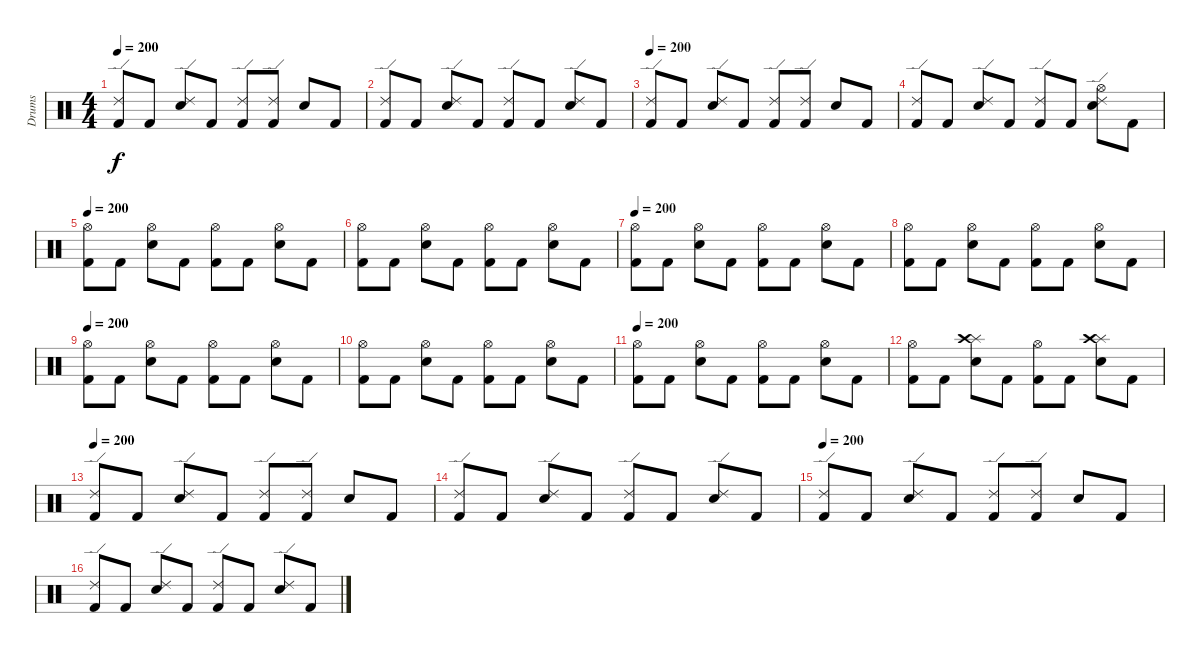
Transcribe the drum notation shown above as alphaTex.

\track ("Drums" "Drums") {instrument percussion}
\staff {score}
\articulation defaults
\ts (4 4)
\tempo 200
\clef neutral
\ks c
("Kick (hit) 2" "Ride (edge) 2").8{dy f} "Kick (hit) 2".8 ("Electric Snare (hit)" "Ride (edge) 2").8 "Kick (hit) 2".8 ("Kick (hit) 2" "Ride (edge) 2").8 ("Kick (hit) 2" "Ride (edge) 2").8 "Electric Snare (hit)".8 "Kick (hit) 2".8 |
("Kick (hit) 2" "Ride (edge) 2").8 "Kick (hit) 2".8 ("Electric Snare (hit)" "Ride (edge) 2").8 "Kick (hit) 2".8 ("Kick (hit) 2" "Ride (edge) 2").8 "Kick (hit) 2".8 ("Electric Snare (hit)" "Ride (edge) 2").8 "Kick (hit) 2".8 |
\tempo 200
("Kick (hit) 2" "Ride (edge) 2").8 "Kick (hit) 2".8 ("Electric Snare (hit)" "Ride (edge) 2").8 "Kick (hit) 2".8 ("Kick (hit) 2" "Ride (edge) 2").8 ("Kick (hit) 2" "Ride (edge) 2").8 "Electric Snare (hit)".8 "Kick (hit) 2".8 |
("Kick (hit) 2" "Ride (edge) 2").8 "Kick (hit) 2".8 ("Electric Snare (hit)" "Ride (edge) 2").8 "Kick (hit) 2".8 ("Kick (hit) 2" "Ride (edge) 2").8 "Kick (hit) 2".8 ("Electric Snare (hit)" "Ride (edge) 2" "Hi-Hat (open)").8 "Kick (hit) 2".8 |
\tempo 200
("Kick (hit) 2" "Hi-Hat (open)").8 "Kick (hit) 2".8 ("Electric Snare (hit)" "Hi-Hat (open)").8 "Kick (hit) 2".8 ("Kick (hit) 2" "Hi-Hat (open)").8 "Kick (hit) 2".8 ("Electric Snare (hit)" "Hi-Hat (open)").8 "Kick (hit) 2".8 |
("Kick (hit) 2" "Hi-Hat (open)").8 "Kick (hit) 2".8 ("Electric Snare (hit)" "Hi-Hat (open)").8 "Kick (hit) 2".8 ("Kick (hit) 2" "Hi-Hat (open)").8 "Kick (hit) 2".8 ("Electric Snare (hit)" "Hi-Hat (open)").8 "Kick (hit) 2".8 |
\tempo 200
("Kick (hit) 2" "Hi-Hat (open)").8 "Kick (hit) 2".8 ("Electric Snare (hit)" "Hi-Hat (open)").8 "Kick (hit) 2".8 ("Kick (hit) 2" "Hi-Hat (open)").8 "Kick (hit) 2".8 ("Electric Snare (hit)" "Hi-Hat (open)").8 "Kick (hit) 2".8 |
("Kick (hit) 2" "Hi-Hat (open)").8 "Kick (hit) 2".8 ("Electric Snare (hit)" "Hi-Hat (open)").8 "Kick (hit) 2".8 ("Kick (hit) 2" "Hi-Hat (open)").8 "Kick (hit) 2".8 ("Electric Snare (hit)" "Hi-Hat (open)").8 "Kick (hit) 2".8 |
\tempo 200
("Kick (hit) 2" "Hi-Hat (open)").8 "Kick (hit) 2".8 ("Electric Snare (hit)" "Hi-Hat (open)").8 "Kick (hit) 2".8 ("Kick (hit) 2" "Hi-Hat (open)").8 "Kick (hit) 2".8 ("Electric Snare (hit)" "Hi-Hat (open)").8 "Kick (hit) 2".8 |
("Kick (hit) 2" "Hi-Hat (open)").8 "Kick (hit) 2".8 ("Electric Snare (hit)" "Hi-Hat (open)").8 "Kick (hit) 2".8 ("Kick (hit) 2" "Hi-Hat (open)").8 "Kick (hit) 2".8 ("Electric Snare (hit)" "Hi-Hat (open)").8 "Kick (hit) 2".8 |
\tempo 200
("Kick (hit) 2" "Hi-Hat (open)").8 "Kick (hit) 2".8 ("Electric Snare (hit)" "Hi-Hat (open)").8 "Kick (hit) 2".8 ("Kick (hit) 2" "Hi-Hat (open)").8 "Kick (hit) 2".8 ("Electric Snare (hit)" "Hi-Hat (open)").8 "Kick (hit) 2".8 |
("Kick (hit) 2" "Hi-Hat (open)").8 "Kick (hit) 2".8 ("Electric Snare (hit)" "Splash (hit)" "Crash high (hit)").8 "Kick (hit) 2".8 ("Kick (hit) 2" "Hi-Hat (open)").8 "Kick (hit) 2".8 ("Electric Snare (hit)" "Splash (hit)" "Crash high (hit)").8 "Kick (hit) 2".8 |
\tempo 200
("Kick (hit) 2" "Ride (edge) 2").8 "Kick (hit) 2".8 ("Electric Snare (hit)" "Ride (edge) 2").8 "Kick (hit) 2".8 ("Kick (hit) 2" "Ride (edge) 2").8 ("Kick (hit) 2" "Ride (edge) 2").8 "Electric Snare (hit)".8 "Kick (hit) 2".8 |
("Kick (hit) 2" "Ride (edge) 2").8 "Kick (hit) 2".8 ("Electric Snare (hit)" "Ride (edge) 2").8 "Kick (hit) 2".8 ("Kick (hit) 2" "Ride (edge) 2").8 "Kick (hit) 2".8 ("Electric Snare (hit)" "Ride (edge) 2").8 "Kick (hit) 2".8 |
\tempo 200
("Kick (hit) 2" "Ride (edge) 2").8 "Kick (hit) 2".8 ("Electric Snare (hit)" "Ride (edge) 2").8 "Kick (hit) 2".8 ("Kick (hit) 2" "Ride (edge) 2").8 ("Kick (hit) 2" "Ride (edge) 2").8 "Electric Snare (hit)".8 "Kick (hit) 2".8 |
("Kick (hit) 2" "Ride (edge) 2").8 "Kick (hit) 2".8 ("Electric Snare (hit)" "Ride (edge) 2").8 "Kick (hit) 2".8 ("Kick (hit) 2" "Ride (edge) 2").8 "Kick (hit) 2".8 ("Electric Snare (hit)" "Ride (edge) 2").8 "Kick (hit) 2".8
